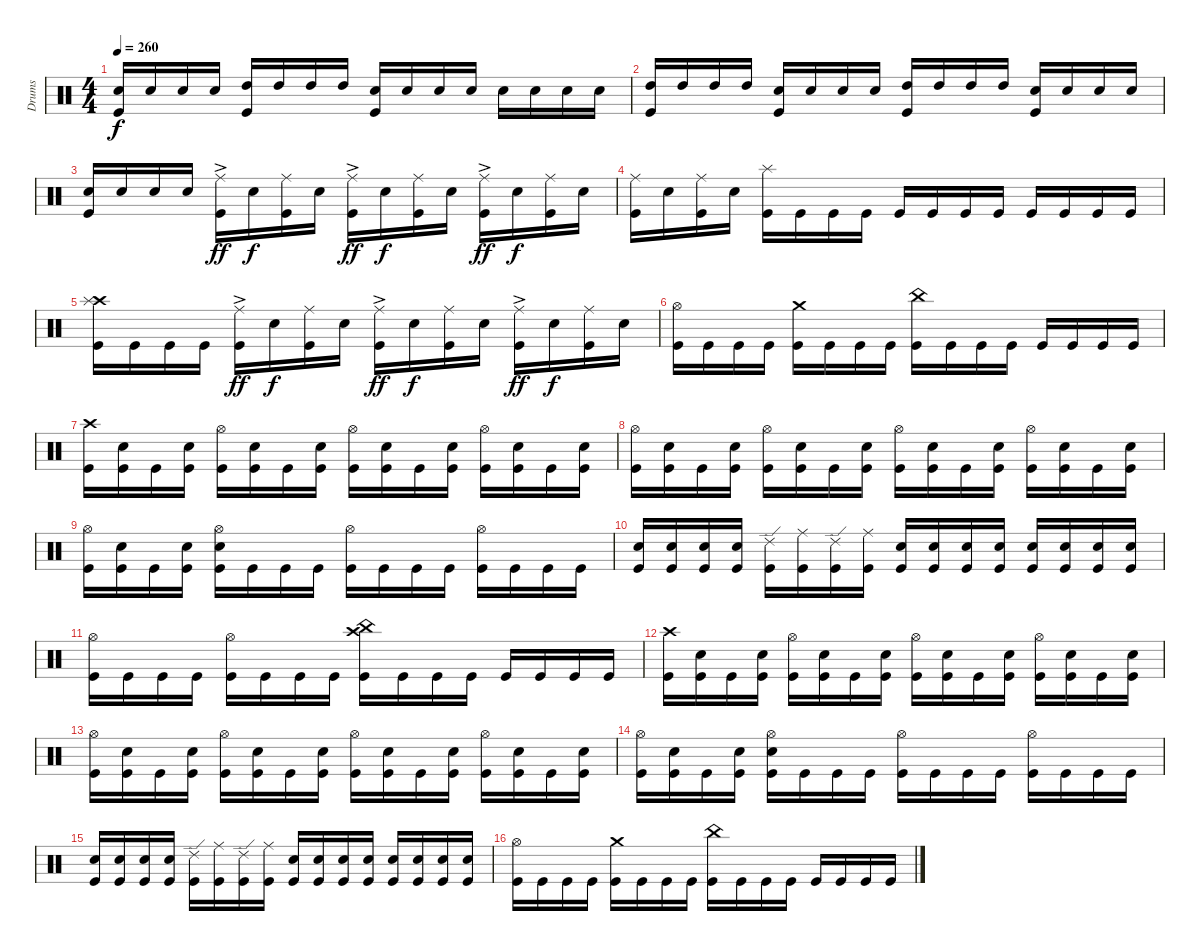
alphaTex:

\track ("Drums" "Drums") {instrument percussion}
\staff {score}
\articulation defaults
\ts (4 4)
\tempo 260
\clef neutral
\ks c
("Electric Snare (hit)" "Kick (hit)").16{dy f} "Electric Snare (hit)".16 "Electric Snare (hit)".16 "Electric Snare (hit)".16 ("High Tom (hit)" "Kick (hit)").16 "High Tom (hit)".16 "High Tom (hit)".16 "High Tom (hit)".16 ("Electric Snare (hit)" "Kick (hit)").16 "Electric Snare (hit)".16 "Electric Snare (hit)".16 "Electric Snare (hit)".16 "Electric Snare (hit)".16 "Electric Snare (hit)".16 "Electric Snare (hit)".16 "Electric Snare (hit)".16 |
("High Tom (hit)" "Kick (hit)").16 "High Tom (hit)".16 "High Tom (hit)".16 "High Tom (hit)".16 ("Electric Snare (hit)" "Kick (hit)").16 "Electric Snare (hit)".16 "Electric Snare (hit)".16 "Electric Snare (hit)".16 ("High Tom (hit)" "Kick (hit)").16 "High Tom (hit)".16 "High Tom (hit)".16 "High Tom (hit)".16 ("Electric Snare (hit)" "Kick (hit)").16 "Electric Snare (hit)".16 "Electric Snare (hit)".16 "Electric Snare (hit)".16 |
("Electric Snare (hit)" "Kick (hit)").16 "Electric Snare (hit)".16 "Electric Snare (hit)".16 "Electric Snare (hit)".16 ("Ride (middle)"{ac} "Kick (hit)").16{dy ff} "Electric Snare (hit)".16{dy f} ("Ride (middle)" "Kick (hit)").16 "Electric Snare (hit)".16 ("Ride (middle)"{ac} "Kick (hit)").16{dy ff} "Electric Snare (hit)".16{dy f} ("Ride (middle)" "Kick (hit)").16 "Electric Snare (hit)".16 ("Ride (middle)"{ac} "Kick (hit)").16{dy ff} "Electric Snare (hit)".16{dy f} ("Ride (middle)" "Kick (hit)").16 "Electric Snare (hit)".16 |
("Ride (middle)" "Kick (hit)").16 "Electric Snare (hit)".16 ("Ride (middle)" "Kick (hit)").16 "Electric Snare (hit)".16 ("Splash (hit)" "Kick (hit)").16 "Kick (hit)".16 "Kick (hit)".16 "Kick (hit)".16 "Kick (hit)".16 "Kick (hit)".16 "Kick (hit)".16 "Kick (hit)".16 "Kick (hit)".16 "Kick (hit)".16 "Kick (hit)".16 "Kick (hit)".16 |
("Crash high (hit)" "Splash (hit)" "Kick (hit)").16 "Kick (hit)".16 "Kick (hit)".16 "Kick (hit)".16 ("Ride (middle)"{ac} "Kick (hit)").16{dy ff} "Electric Snare (hit)".16{dy f} ("Ride (middle)" "Kick (hit)").16 "Electric Snare (hit)".16 ("Ride (middle)"{ac} "Kick (hit)").16{dy ff} "Electric Snare (hit)".16{dy f} ("Ride (middle)" "Kick (hit)").16 "Electric Snare (hit)".16 ("Ride (middle)"{ac} "Kick (hit)").16{dy ff} "Electric Snare (hit)".16{dy f} ("Ride (middle)" "Kick (hit)").16 "Electric Snare (hit)".16 |
("Hi-Hat (open)" "Kick (hit)").16 "Kick (hit)".16 "Kick (hit)".16 "Kick (hit)".16 ("Crash medium (hit)" "Kick (hit)").16 "Kick (hit)".16 "Kick (hit)".16 "Kick (hit)".16 ("China (hit)" "Kick (hit)").16 "Kick (hit)".16 "Kick (hit)".16 "Kick (hit)".16 "Kick (hit)".16 "Kick (hit)".16 "Kick (hit)".16 "Kick (hit)".16 |
("Crash high (hit)" "Kick (hit)").16 ("Electric Snare (hit)" "Kick (hit)").16 "Kick (hit)".16 ("Electric Snare (hit)" "Kick (hit)").16 ("Hi-Hat (open)" "Kick (hit)").16 ("Electric Snare (hit)" "Kick (hit)").16 "Kick (hit)".16 ("Electric Snare (hit)" "Kick (hit)").16 ("Hi-Hat (open)" "Kick (hit)").16 ("Electric Snare (hit)" "Kick (hit)").16 "Kick (hit)".16 ("Electric Snare (hit)" "Kick (hit)").16 ("Hi-Hat (open)" "Kick (hit)").16 ("Electric Snare (hit)" "Kick (hit)").16 "Kick (hit)".16 ("Electric Snare (hit)" "Kick (hit)").16 |
("Hi-Hat (open)" "Kick (hit)").16 ("Electric Snare (hit)" "Kick (hit)").16 "Kick (hit)".16 ("Electric Snare (hit)" "Kick (hit)").16 ("Hi-Hat (open)" "Kick (hit)").16 ("Electric Snare (hit)" "Kick (hit)").16 "Kick (hit)".16 ("Electric Snare (hit)" "Kick (hit)").16 ("Hi-Hat (open)" "Kick (hit)").16 ("Electric Snare (hit)" "Kick (hit)").16 "Kick (hit)".16 ("Electric Snare (hit)" "Kick (hit)").16 ("Hi-Hat (open)" "Kick (hit)").16 ("Electric Snare (hit)" "Kick (hit)").16 "Kick (hit)".16 ("Electric Snare (hit)" "Kick (hit)").16 |
("Hi-Hat (open)" "Kick (hit)").16 ("Electric Snare (hit)" "Kick (hit)").16 "Kick (hit)".16 ("Electric Snare (hit)" "Kick (hit)").16 ("Hi-Hat (open)" "Electric Snare (hit)" "Kick (hit)").16 "Kick (hit)".16 "Kick (hit)".16 "Kick (hit)".16 ("Hi-Hat (open)" "Kick (hit)").16 "Kick (hit)".16 "Kick (hit)".16 "Kick (hit)".16 ("Hi-Hat (open)" "Kick (hit)").16 "Kick (hit)".16 "Kick (hit)".16 "Kick (hit)".16 |
("Electric Snare (hit)" "Kick (hit)").16 ("Electric Snare (hit)" "Kick (hit)").16 ("Electric Snare (hit)" "Kick (hit)").16 ("Electric Snare (hit)" "Kick (hit)").16 ("Ride (edge) 2" "Kick (hit)").16 ("Ride (middle)" "Kick (hit)").16 ("Ride (edge) 2" "Kick (hit)").16 ("Ride (middle)" "Kick (hit)").16 ("Electric Snare (hit)" "Kick (hit)").16 ("Electric Snare (hit)" "Kick (hit)").16 ("Electric Snare (hit)" "Kick (hit)").16 ("Electric Snare (hit)" "Kick (hit)").16 ("Electric Snare (hit)" "Kick (hit)").16 ("Electric Snare (hit)" "Kick (hit)").16 ("Electric Snare (hit)" "Kick (hit)").16 ("Electric Snare (hit)" "Kick (hit)").16 |
("Hi-Hat (open)" "Kick (hit)").16 "Kick (hit)".16 "Kick (hit)".16 "Kick (hit)".16 ("Hi-Hat (open)" "Kick (hit)").16 "Kick (hit)".16 "Kick (hit)".16 "Kick (hit)".16 ("China (hit)" "Crash high (hit)" "Kick (hit)").16 "Kick (hit)".16 "Kick (hit)".16 "Kick (hit)".16 "Kick (hit)".16 "Kick (hit)".16 "Kick (hit)".16 "Kick (hit)".16 |
("Crash high (hit)" "Kick (hit)").16 ("Electric Snare (hit)" "Kick (hit)").16 "Kick (hit)".16 ("Electric Snare (hit)" "Kick (hit)").16 ("Hi-Hat (open)" "Kick (hit)").16 ("Electric Snare (hit)" "Kick (hit)").16 "Kick (hit)".16 ("Electric Snare (hit)" "Kick (hit)").16 ("Hi-Hat (open)" "Kick (hit)").16 ("Electric Snare (hit)" "Kick (hit)").16 "Kick (hit)".16 ("Electric Snare (hit)" "Kick (hit)").16 ("Hi-Hat (open)" "Kick (hit)").16 ("Electric Snare (hit)" "Kick (hit)").16 "Kick (hit)".16 ("Electric Snare (hit)" "Kick (hit)").16 |
("Hi-Hat (open)" "Kick (hit)").16 ("Electric Snare (hit)" "Kick (hit)").16 "Kick (hit)".16 ("Electric Snare (hit)" "Kick (hit)").16 ("Hi-Hat (open)" "Kick (hit)").16 ("Electric Snare (hit)" "Kick (hit)").16 "Kick (hit)".16 ("Electric Snare (hit)" "Kick (hit)").16 ("Hi-Hat (open)" "Kick (hit)").16 ("Electric Snare (hit)" "Kick (hit)").16 "Kick (hit)".16 ("Electric Snare (hit)" "Kick (hit)").16 ("Hi-Hat (open)" "Kick (hit)").16 ("Electric Snare (hit)" "Kick (hit)").16 "Kick (hit)".16 ("Electric Snare (hit)" "Kick (hit)").16 |
("Hi-Hat (open)" "Kick (hit)").16 ("Electric Snare (hit)" "Kick (hit)").16 "Kick (hit)".16 ("Electric Snare (hit)" "Kick (hit)").16 ("Hi-Hat (open)" "Electric Snare (hit)" "Kick (hit)").16 "Kick (hit)".16 "Kick (hit)".16 "Kick (hit)".16 ("Hi-Hat (open)" "Kick (hit)").16 "Kick (hit)".16 "Kick (hit)".16 "Kick (hit)".16 ("Hi-Hat (open)" "Kick (hit)").16 "Kick (hit)".16 "Kick (hit)".16 "Kick (hit)".16 |
("Electric Snare (hit)" "Kick (hit)").16 ("Electric Snare (hit)" "Kick (hit)").16 ("Electric Snare (hit)" "Kick (hit)").16 ("Electric Snare (hit)" "Kick (hit)").16 ("Ride (edge) 2" "Kick (hit)").16 ("Ride (middle)" "Kick (hit)").16 ("Ride (edge) 2" "Kick (hit)").16 ("Ride (middle)" "Kick (hit)").16 ("Electric Snare (hit)" "Kick (hit)").16 ("Electric Snare (hit)" "Kick (hit)").16 ("Electric Snare (hit)" "Kick (hit)").16 ("Electric Snare (hit)" "Kick (hit)").16 ("Electric Snare (hit)" "Kick (hit)").16 ("Electric Snare (hit)" "Kick (hit)").16 ("Electric Snare (hit)" "Kick (hit)").16 ("Electric Snare (hit)" "Kick (hit)").16 |
("Hi-Hat (open)" "Kick (hit)").16 "Kick (hit)".16 "Kick (hit)".16 "Kick (hit)".16 ("Crash medium (hit)" "Kick (hit)").16 "Kick (hit)".16 "Kick (hit)".16 "Kick (hit)".16 ("China (hit)" "Kick (hit)").16 "Kick (hit)".16 "Kick (hit)".16 "Kick (hit)".16 "Kick (hit)".16 "Kick (hit)".16 "Kick (hit)".16 "Kick (hit)".16
